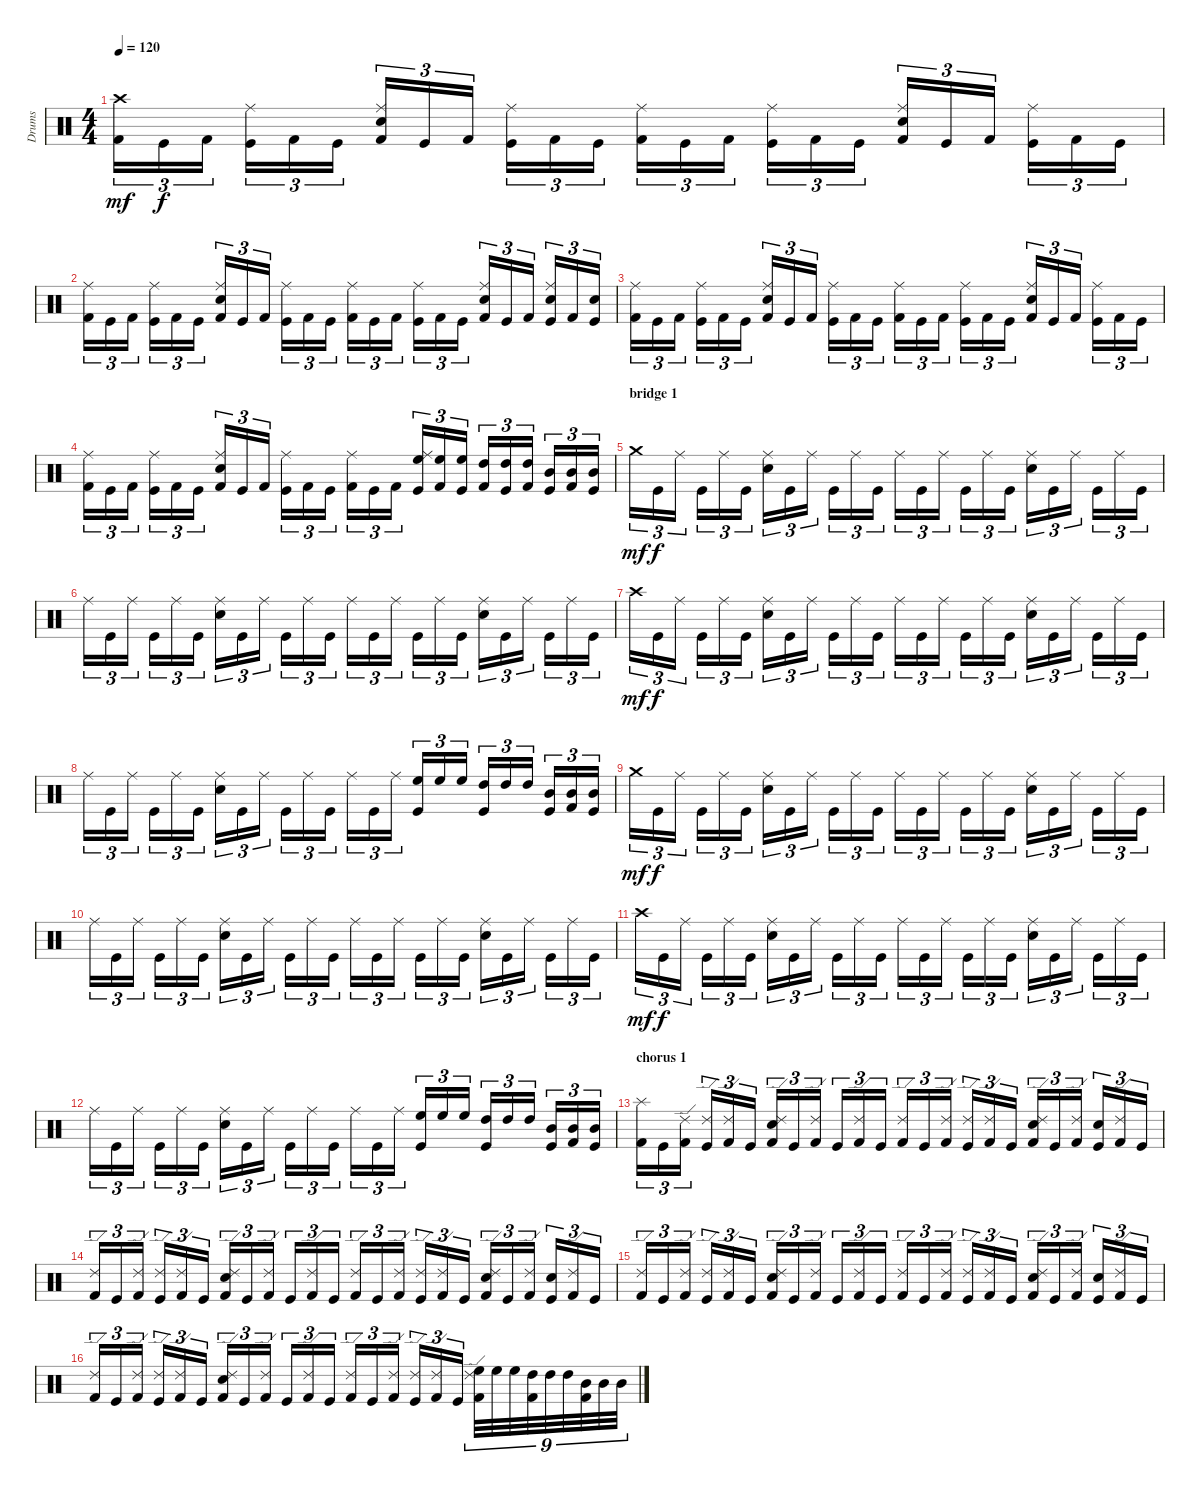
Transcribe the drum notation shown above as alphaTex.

\track ("Drums" "Drums") {instrument percussion}
\staff {score}
\articulation defaults
\ts (4 4)
\tempo 120
\clef neutral
\ks c
("Crash high (hit)" "Kick (hit) 2").16{tu (3 2) dy mf} "Kick (hit)".16{tu (3 2) dy f} "Kick (hit) 2".16{tu (3 2)} ("Ride (middle)" "Kick (hit)").16{tu (3 2)} "Kick (hit) 2".16{tu (3 2)} "Kick (hit)".16{tu (3 2)} ("Ride (middle)" "Snare (hit) 2" "Kick (hit) 2").16{tu (3 2)} "Kick (hit)".16{tu (3 2)} "Kick (hit) 2".16{tu (3 2)} ("Ride (middle)" "Kick (hit)").16{tu (3 2)} "Kick (hit) 2".16{tu (3 2)} "Kick (hit)".16{tu (3 2)} ("Ride (middle)" "Kick (hit) 2").16{tu (3 2)} "Kick (hit)".16{tu (3 2)} "Kick (hit) 2".16{tu (3 2)} ("Ride (middle)" "Kick (hit)").16{tu (3 2)} "Kick (hit) 2".16{tu (3 2)} "Kick (hit)".16{tu (3 2)} ("Ride (middle)" "Snare (hit) 2" "Kick (hit) 2").16{tu (3 2)} "Kick (hit)".16{tu (3 2)} "Kick (hit) 2".16{tu (3 2)} ("Ride (middle)" "Kick (hit)").16{tu (3 2)} "Kick (hit) 2".16{tu (3 2)} "Kick (hit)".16{tu (3 2)} |
("Ride (middle)" "Kick (hit) 2").16{tu (3 2)} "Kick (hit)".16{tu (3 2)} "Kick (hit) 2".16{tu (3 2)} ("Ride (middle)" "Kick (hit)").16{tu (3 2)} "Kick (hit) 2".16{tu (3 2)} "Kick (hit)".16{tu (3 2)} ("Ride (middle)" "Snare (hit) 2" "Kick (hit) 2").16{tu (3 2)} "Kick (hit)".16{tu (3 2)} "Kick (hit) 2".16{tu (3 2)} ("Ride (middle)" "Kick (hit)").16{tu (3 2)} "Kick (hit) 2".16{tu (3 2)} "Kick (hit)".16{tu (3 2)} ("Ride (middle)" "Kick (hit) 2").16{tu (3 2)} "Kick (hit)".16{tu (3 2)} "Kick (hit) 2".16{tu (3 2)} ("Ride (middle)" "Kick (hit)").16{tu (3 2)} "Kick (hit) 2".16{tu (3 2)} "Kick (hit)".16{tu (3 2)} ("Ride (middle)" "Snare (hit) 2" "Kick (hit) 2").16{tu (3 2)} "Kick (hit)".16{tu (3 2)} "Kick (hit) 2".16{tu (3 2)} ("Ride (middle)" "Snare (hit) 2" "Kick (hit)").16{tu (3 2)} "Kick (hit) 2".16{tu (3 2)} ("Snare (hit) 2" "Kick (hit)").16{tu (3 2)} |
("Ride (middle)" "Kick (hit) 2").16{tu (3 2)} "Kick (hit)".16{tu (3 2)} "Kick (hit) 2".16{tu (3 2)} ("Ride (middle)" "Kick (hit)").16{tu (3 2)} "Kick (hit) 2".16{tu (3 2)} "Kick (hit)".16{tu (3 2)} ("Ride (middle)" "Snare (hit) 2" "Kick (hit) 2").16{tu (3 2)} "Kick (hit)".16{tu (3 2)} "Kick (hit) 2".16{tu (3 2)} ("Ride (middle)" "Kick (hit)").16{tu (3 2)} "Kick (hit) 2".16{tu (3 2)} "Kick (hit)".16{tu (3 2)} ("Ride (middle)" "Kick (hit) 2").16{tu (3 2)} "Kick (hit)".16{tu (3 2)} "Kick (hit) 2".16{tu (3 2)} ("Ride (middle)" "Kick (hit)").16{tu (3 2)} "Kick (hit) 2".16{tu (3 2)} "Kick (hit)".16{tu (3 2)} ("Ride (middle)" "Snare (hit) 2" "Kick (hit) 2").16{tu (3 2)} "Kick (hit)".16{tu (3 2)} "Kick (hit) 2".16{tu (3 2)} ("Ride (middle)" "Kick (hit)").16{tu (3 2)} "Kick (hit) 2".16{tu (3 2)} "Kick (hit)".16{tu (3 2)} |
("Ride (middle)" "Kick (hit) 2").16{tu (3 2)} "Kick (hit)".16{tu (3 2)} "Kick (hit) 2".16{tu (3 2)} ("Ride (middle)" "Kick (hit)").16{tu (3 2)} "Kick (hit) 2".16{tu (3 2)} "Kick (hit)".16{tu (3 2)} ("Ride (middle)" "Snare (hit) 2" "Kick (hit) 2").16{tu (3 2)} "Kick (hit)".16{tu (3 2)} "Kick (hit) 2".16{tu (3 2)} ("Ride (middle)" "Kick (hit)").16{tu (3 2)} "Kick (hit) 2".16{tu (3 2)} "Kick (hit)".16{tu (3 2)} ("Ride (middle)" "Kick (hit) 2").16{tu (3 2)} "Kick (hit)".16{tu (3 2)} "Kick (hit) 2".16{tu (3 2)} ("Ride (middle)" "High Floor Tom (hit)" "Kick (hit)").16{tu (3 2)} ("High Floor Tom (hit)" "Kick (hit) 2").16{tu (3 2)} ("High Floor Tom (hit)" "Kick (hit)").16{tu (3 2)} ("High Tom (hit)" "Kick (hit) 2").16{tu (3 2)} ("High Tom (hit)" "Kick (hit)").16{tu (3 2)} ("High Tom (hit)" "Kick (hit) 2").16{tu (3 2)} ("Mid Tom (hit)" "Kick (hit)").16{tu (3 2)} ("Mid Tom (hit)" "Kick (hit) 2").16{tu (3 2)} ("Mid Tom (hit)" "Kick (hit)").16{tu (3 2)} |
\section ("" "bridge 1")
"Crash medium (hit)".16{tu (3 2) dy mf} "Kick (hit)".16{tu (3 2) dy f} "Ride (middle)".16{tu (3 2)} "Kick (hit)".16{tu (3 2)} "Ride (middle)".16{tu (3 2)} "Kick (hit)".16{tu (3 2)} ("Ride (middle)" "Snare (hit) 2").16{tu (3 2)} "Kick (hit)".16{tu (3 2)} "Ride (middle)".16{tu (3 2)} "Kick (hit)".16{tu (3 2)} "Ride (middle)".16{tu (3 2)} "Kick (hit)".16{tu (3 2)} "Ride (middle)".16{tu (3 2)} "Kick (hit)".16{tu (3 2)} "Ride (middle)".16{tu (3 2)} "Kick (hit)".16{tu (3 2)} "Ride (middle)".16{tu (3 2)} "Kick (hit)".16{tu (3 2)} ("Ride (middle)" "Snare (hit) 2").16{tu (3 2)} "Kick (hit)".16{tu (3 2)} "Ride (middle)".16{tu (3 2)} "Kick (hit)".16{tu (3 2)} "Ride (middle)".16{tu (3 2)} "Kick (hit)".16{tu (3 2)} |
"Ride (middle)".16{tu (3 2)} "Kick (hit)".16{tu (3 2)} "Ride (middle)".16{tu (3 2)} "Kick (hit)".16{tu (3 2)} "Ride (middle)".16{tu (3 2)} "Kick (hit)".16{tu (3 2)} ("Ride (middle)" "Snare (hit) 2").16{tu (3 2)} "Kick (hit)".16{tu (3 2)} "Ride (middle)".16{tu (3 2)} "Kick (hit)".16{tu (3 2)} "Ride (middle)".16{tu (3 2)} "Kick (hit)".16{tu (3 2)} "Ride (middle)".16{tu (3 2)} "Kick (hit)".16{tu (3 2)} "Ride (middle)".16{tu (3 2)} "Kick (hit)".16{tu (3 2)} "Ride (middle)".16{tu (3 2)} "Kick (hit)".16{tu (3 2)} ("Ride (middle)" "Snare (hit) 2").16{tu (3 2)} "Kick (hit)".16{tu (3 2)} "Ride (middle)".16{tu (3 2)} "Kick (hit)".16{tu (3 2)} "Ride (middle)".16{tu (3 2)} "Kick (hit)".16{tu (3 2)} |
"Crash high (hit)".16{tu (3 2) dy mf} "Kick (hit)".16{tu (3 2) dy f} "Ride (middle)".16{tu (3 2)} "Kick (hit)".16{tu (3 2)} "Ride (middle)".16{tu (3 2)} "Kick (hit)".16{tu (3 2)} ("Ride (middle)" "Snare (hit) 2").16{tu (3 2)} "Kick (hit)".16{tu (3 2)} "Ride (middle)".16{tu (3 2)} "Kick (hit)".16{tu (3 2)} "Ride (middle)".16{tu (3 2)} "Kick (hit)".16{tu (3 2)} "Ride (middle)".16{tu (3 2)} "Kick (hit)".16{tu (3 2)} "Ride (middle)".16{tu (3 2)} "Kick (hit)".16{tu (3 2)} "Ride (middle)".16{tu (3 2)} "Kick (hit)".16{tu (3 2)} ("Ride (middle)" "Snare (hit) 2").16{tu (3 2)} "Kick (hit)".16{tu (3 2)} "Ride (middle)".16{tu (3 2)} "Kick (hit)".16{tu (3 2)} "Ride (middle)".16{tu (3 2)} "Kick (hit)".16{tu (3 2)} |
"Ride (middle)".16{tu (3 2)} "Kick (hit)".16{tu (3 2)} "Ride (middle)".16{tu (3 2)} "Kick (hit)".16{tu (3 2)} "Ride (middle)".16{tu (3 2)} "Kick (hit)".16{tu (3 2)} ("Ride (middle)" "Snare (hit) 2").16{tu (3 2)} "Kick (hit)".16{tu (3 2)} "Ride (middle)".16{tu (3 2)} "Kick (hit)".16{tu (3 2)} "Ride (middle)".16{tu (3 2)} "Kick (hit)".16{tu (3 2)} "Ride (middle)".16{tu (3 2)} "Kick (hit)".16{tu (3 2)} "Ride (middle)".16{tu (3 2)} ("High Floor Tom (hit)" "Kick (hit)").16{tu (3 2)} "High Floor Tom (hit)".16{tu (3 2)} "High Floor Tom (hit)".16{tu (3 2)} ("High Tom (hit)" "Kick (hit)").16{tu (3 2)} "High Tom (hit)".16{tu (3 2)} "High Tom (hit)".16{tu (3 2)} ("Mid Tom (hit)" "Kick (hit)").16{tu (3 2)} ("Mid Tom (hit)" "Kick (hit) 2").16{tu (3 2)} ("Mid Tom (hit)" "Kick (hit)").16{tu (3 2)} |
"Crash medium (hit)".16{tu (3 2) dy mf} "Kick (hit)".16{tu (3 2) dy f} "Ride (middle)".16{tu (3 2)} "Kick (hit)".16{tu (3 2)} "Ride (middle)".16{tu (3 2)} "Kick (hit)".16{tu (3 2)} ("Ride (middle)" "Snare (hit) 2").16{tu (3 2)} "Kick (hit)".16{tu (3 2)} "Ride (middle)".16{tu (3 2)} "Kick (hit)".16{tu (3 2)} "Ride (middle)".16{tu (3 2)} "Kick (hit)".16{tu (3 2)} "Ride (middle)".16{tu (3 2)} "Kick (hit)".16{tu (3 2)} "Ride (middle)".16{tu (3 2)} "Kick (hit)".16{tu (3 2)} "Ride (middle)".16{tu (3 2)} "Kick (hit)".16{tu (3 2)} ("Ride (middle)" "Snare (hit) 2").16{tu (3 2)} "Kick (hit)".16{tu (3 2)} "Ride (middle)".16{tu (3 2)} "Kick (hit)".16{tu (3 2)} "Ride (middle)".16{tu (3 2)} "Kick (hit)".16{tu (3 2)} |
"Ride (middle)".16{tu (3 2)} "Kick (hit)".16{tu (3 2)} "Ride (middle)".16{tu (3 2)} "Kick (hit)".16{tu (3 2)} "Ride (middle)".16{tu (3 2)} "Kick (hit)".16{tu (3 2)} ("Ride (middle)" "Snare (hit) 2").16{tu (3 2)} "Kick (hit)".16{tu (3 2)} "Ride (middle)".16{tu (3 2)} "Kick (hit)".16{tu (3 2)} "Ride (middle)".16{tu (3 2)} "Kick (hit)".16{tu (3 2)} "Ride (middle)".16{tu (3 2)} "Kick (hit)".16{tu (3 2)} "Ride (middle)".16{tu (3 2)} "Kick (hit)".16{tu (3 2)} "Ride (middle)".16{tu (3 2)} "Kick (hit)".16{tu (3 2)} ("Ride (middle)" "Snare (hit) 2").16{tu (3 2)} "Kick (hit)".16{tu (3 2)} "Ride (middle)".16{tu (3 2)} "Kick (hit)".16{tu (3 2)} "Ride (middle)".16{tu (3 2)} "Kick (hit)".16{tu (3 2)} |
"Crash high (hit)".16{tu (3 2) dy mf} "Kick (hit)".16{tu (3 2) dy f} "Ride (middle)".16{tu (3 2)} "Kick (hit)".16{tu (3 2)} "Ride (middle)".16{tu (3 2)} "Kick (hit)".16{tu (3 2)} ("Ride (middle)" "Snare (hit) 2").16{tu (3 2)} "Kick (hit)".16{tu (3 2)} "Ride (middle)".16{tu (3 2)} "Kick (hit)".16{tu (3 2)} "Ride (middle)".16{tu (3 2)} "Kick (hit)".16{tu (3 2)} "Ride (middle)".16{tu (3 2)} "Kick (hit)".16{tu (3 2)} "Ride (middle)".16{tu (3 2)} "Kick (hit)".16{tu (3 2)} "Ride (middle)".16{tu (3 2)} "Kick (hit)".16{tu (3 2)} ("Ride (middle)" "Snare (hit) 2").16{tu (3 2)} "Kick (hit)".16{tu (3 2)} "Ride (middle)".16{tu (3 2)} "Kick (hit)".16{tu (3 2)} "Ride (middle)".16{tu (3 2)} "Kick (hit)".16{tu (3 2)} |
"Ride (middle)".16{tu (3 2)} "Kick (hit)".16{tu (3 2)} "Ride (middle)".16{tu (3 2)} "Kick (hit)".16{tu (3 2)} "Ride (middle)".16{tu (3 2)} "Kick (hit)".16{tu (3 2)} ("Ride (middle)" "Snare (hit) 2").16{tu (3 2)} "Kick (hit)".16{tu (3 2)} "Ride (middle)".16{tu (3 2)} "Kick (hit)".16{tu (3 2)} "Ride (middle)".16{tu (3 2)} "Kick (hit)".16{tu (3 2)} "Ride (middle)".16{tu (3 2)} "Kick (hit)".16{tu (3 2)} "Ride (middle)".16{tu (3 2)} ("High Floor Tom (hit)" "Kick (hit)").16{tu (3 2)} "High Floor Tom (hit)".16{tu (3 2)} "High Floor Tom (hit)".16{tu (3 2)} ("High Tom (hit)" "Kick (hit)").16{tu (3 2)} "High Tom (hit)".16{tu (3 2)} "High Tom (hit)".16{tu (3 2)} ("Mid Tom (hit)" "Kick (hit)").16{tu (3 2)} ("Mid Tom (hit)" "Kick (hit) 2").16{tu (3 2)} ("Mid Tom (hit)" "Kick (hit)").16{tu (3 2)} |
\section ("" "chorus 1")
("Splash (hit)" "Kick (hit) 2").16{tu (3 2)} "Kick (hit)".16{tu (3 2)} ("Ride (edge) 2" "Kick (hit) 2").16{tu (3 2)} ("Ride (edge) 2" "Kick (hit)").16{tu (3 2)} ("Ride (edge) 2" "Kick (hit) 2").16{tu (3 2)} "Kick (hit)".16{tu (3 2)} ("Ride (edge) 2" "Snare (hit) 2" "Kick (hit) 2").16{tu (3 2)} "Kick (hit)".16{tu (3 2)} ("Ride (edge) 2" "Kick (hit) 2").16{tu (3 2)} "Kick (hit)".16{tu (3 2)} ("Ride (edge) 2" "Kick (hit) 2").16{tu (3 2)} "Kick (hit)".16{tu (3 2)} ("Ride (edge) 2" "Kick (hit) 2").16{tu (3 2)} "Kick (hit)".16{tu (3 2)} ("Ride (edge) 2" "Kick (hit) 2").16{tu (3 2)} ("Ride (edge) 2" "Kick (hit)").16{tu (3 2)} ("Ride (edge) 2" "Kick (hit) 2").16{tu (3 2)} "Kick (hit)".16{tu (3 2)} ("Ride (edge) 2" "Snare (hit) 2" "Kick (hit) 2").16{tu (3 2)} "Kick (hit)".16{tu (3 2)} ("Ride (edge) 2" "Kick (hit) 2").16{tu (3 2)} ("Snare (hit) 2" "Kick (hit)").16{tu (3 2)} ("Ride (edge) 2" "Kick (hit) 2").16{tu (3 2)} "Kick (hit)".16{tu (3 2)} |
("Ride (edge) 2" "Kick (hit) 2").16{tu (3 2)} "Kick (hit)".16{tu (3 2)} ("Ride (edge) 2" "Kick (hit) 2").16{tu (3 2)} ("Ride (edge) 2" "Kick (hit)").16{tu (3 2)} ("Ride (edge) 2" "Kick (hit) 2").16{tu (3 2)} "Kick (hit)".16{tu (3 2)} ("Ride (edge) 2" "Snare (hit) 2" "Kick (hit) 2").16{tu (3 2)} "Kick (hit)".16{tu (3 2)} ("Ride (edge) 2" "Kick (hit) 2").16{tu (3 2)} "Kick (hit)".16{tu (3 2)} ("Ride (edge) 2" "Kick (hit) 2").16{tu (3 2)} "Kick (hit)".16{tu (3 2)} ("Ride (edge) 2" "Kick (hit) 2").16{tu (3 2)} "Kick (hit)".16{tu (3 2)} ("Ride (edge) 2" "Kick (hit) 2").16{tu (3 2)} ("Ride (edge) 2" "Kick (hit)").16{tu (3 2)} ("Ride (edge) 2" "Kick (hit) 2").16{tu (3 2)} "Kick (hit)".16{tu (3 2)} ("Ride (edge) 2" "Snare (hit) 2" "Kick (hit) 2").16{tu (3 2)} "Kick (hit)".16{tu (3 2)} ("Ride (edge) 2" "Kick (hit) 2").16{tu (3 2)} ("Snare (hit) 2" "Kick (hit)").16{tu (3 2)} ("Ride (edge) 2" "Kick (hit) 2").16{tu (3 2)} "Kick (hit)".16{tu (3 2)} |
("Ride (edge) 2" "Kick (hit) 2").16{tu (3 2)} "Kick (hit)".16{tu (3 2)} ("Ride (edge) 2" "Kick (hit) 2").16{tu (3 2)} ("Ride (edge) 2" "Kick (hit)").16{tu (3 2)} ("Ride (edge) 2" "Kick (hit) 2").16{tu (3 2)} "Kick (hit)".16{tu (3 2)} ("Ride (edge) 2" "Snare (hit) 2" "Kick (hit) 2").16{tu (3 2)} "Kick (hit)".16{tu (3 2)} ("Ride (edge) 2" "Kick (hit) 2").16{tu (3 2)} "Kick (hit)".16{tu (3 2)} ("Ride (edge) 2" "Kick (hit) 2").16{tu (3 2)} "Kick (hit)".16{tu (3 2)} ("Ride (edge) 2" "Kick (hit) 2").16{tu (3 2)} "Kick (hit)".16{tu (3 2)} ("Ride (edge) 2" "Kick (hit) 2").16{tu (3 2)} ("Ride (edge) 2" "Kick (hit)").16{tu (3 2)} ("Ride (edge) 2" "Kick (hit) 2").16{tu (3 2)} "Kick (hit)".16{tu (3 2)} ("Ride (edge) 2" "Snare (hit) 2" "Kick (hit) 2").16{tu (3 2)} "Kick (hit)".16{tu (3 2)} ("Ride (edge) 2" "Kick (hit) 2").16{tu (3 2)} ("Snare (hit) 2" "Kick (hit)").16{tu (3 2)} ("Ride (edge) 2" "Kick (hit) 2").16{tu (3 2)} "Kick (hit)".16{tu (3 2)} |
("Ride (edge) 2" "Kick (hit) 2").16{tu (3 2)} "Kick (hit)".16{tu (3 2)} ("Ride (edge) 2" "Kick (hit) 2").16{tu (3 2)} ("Ride (edge) 2" "Kick (hit)").16{tu (3 2)} ("Ride (edge) 2" "Kick (hit) 2").16{tu (3 2)} "Kick (hit)".16{tu (3 2)} ("Ride (edge) 2" "Snare (hit) 2" "Kick (hit) 2").16{tu (3 2)} "Kick (hit)".16{tu (3 2)} ("Ride (edge) 2" "Kick (hit) 2").16{tu (3 2)} "Kick (hit)".16{tu (3 2)} ("Ride (edge) 2" "Kick (hit) 2").16{tu (3 2)} "Kick (hit)".16{tu (3 2)} ("Ride (edge) 2" "Kick (hit) 2").16{tu (3 2)} "Kick (hit)".16{tu (3 2)} ("Ride (edge) 2" "Kick (hit) 2").16{tu (3 2)} ("Ride (edge) 2" "Kick (hit)").16{tu (3 2)} ("Ride (edge) 2" "Kick (hit) 2").16{tu (3 2)} "Kick (hit)".16{tu (3 2)} ("Ride (edge) 2" "High Floor Tom (hit)" "Kick (hit) 2").32{tu (9 8)} "High Floor Tom (hit)".32{tu (9 8)} "High Floor Tom (hit)".32{tu (9 8)} ("High Tom (hit)" "Kick (hit) 2").32{tu (9 8)} "High Tom (hit)".32{tu (9 8)} "High Tom (hit)".32{tu (9 8)} ("Mid Tom (hit)" "Kick (hit) 2").32{tu (9 8)} "Mid Tom (hit)".32{tu (9 8)} "Mid Tom (hit)".32{tu (9 8)}
